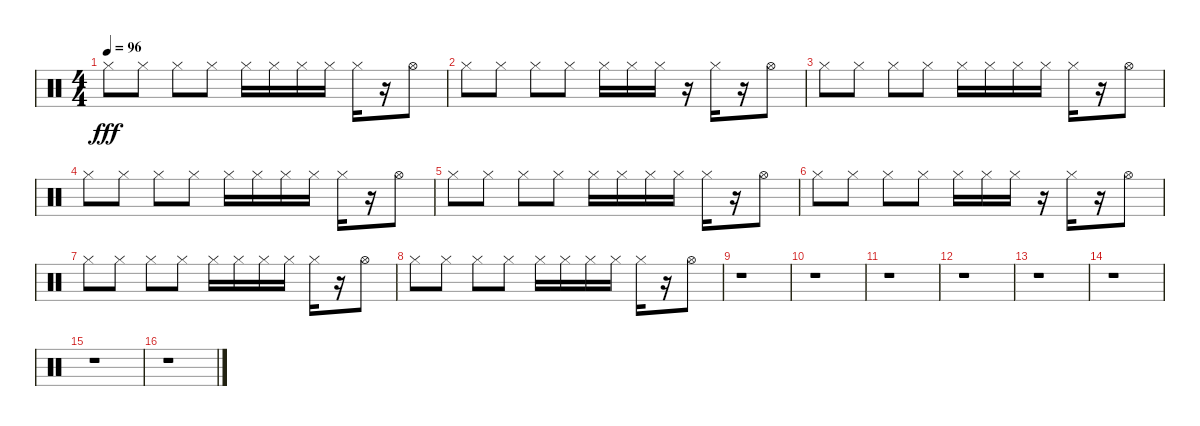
\track "" {instrument percussion}
\staff {score}
\articulation defaults
\ts (4 4)
\tempo 96
\clef neutral
\ks c "Hi-Hat (closed)".8{dy fff} "Hi-Hat (closed)".8 "Hi-Hat (closed)".8 "Hi-Hat (closed)".8 "Hi-Hat (closed)".16 "Hi-Hat (closed)".16 "Hi-Hat (closed)".16 "Hi-Hat (closed)".16 "Hi-Hat (closed)".16
r.16 "Hi-Hat (open)".8 |
"Hi-Hat (closed)".8 "Hi-Hat (closed)".8 "Hi-Hat (closed)".8 "Hi-Hat (closed)".8 "Hi-Hat (closed)".16 "Hi-Hat (closed)".16 "Hi-Hat (closed)".16 r.16 "Hi-Hat (closed)".16 r.16 "Hi-Hat (open)".8 |
"Hi-Hat (closed)".8 "Hi-Hat (closed)".8 "Hi-Hat (closed)".8 "Hi-Hat (closed)".8 "Hi-Hat (closed)".16 "Hi-Hat (closed)".16 "Hi-Hat (closed)".16 "Hi-Hat (closed)".16 "Hi-Hat (closed)".16 r.16 "Hi-Hat (open)".8 |
"Hi-Hat (closed)".8 "Hi-Hat (closed)".8 "Hi-Hat (closed)".8 "Hi-Hat (closed)".8 "Hi-Hat (closed)".16 "Hi-Hat (closed)".16 "Hi-Hat (closed)".16 "Hi-Hat (closed)".16 "Hi-Hat (closed)".16 r.16 "Hi-Hat (open)".8 |
"Hi-Hat (closed)".8 "Hi-Hat (closed)".8 "Hi-Hat (closed)".8 "Hi-Hat (closed)".8 "Hi-Hat (closed)".16 "Hi-Hat (closed)".16 "Hi-Hat (closed)".16 "Hi-Hat (closed)".16 "Hi-Hat (closed)".16 r.16 "Hi-Hat (open)".8 |
"Hi-Hat (closed)".8 "Hi-Hat (closed)".8 "Hi-Hat (closed)".8 "Hi-Hat (closed)".8 "Hi-Hat (closed)".16 "Hi-Hat (closed)".16 "Hi-Hat (closed)".16 r.16 "Hi-Hat (closed)".16 r.16 "Hi-Hat (open)".8 |
"Hi-Hat (closed)".8 "Hi-Hat (closed)".8 "Hi-Hat (closed)".8 "Hi-Hat (closed)".8 "Hi-Hat (closed)".16 "Hi-Hat (closed)".16 "Hi-Hat (closed)".16 "Hi-Hat (closed)".16 "Hi-Hat (closed)".16 r.16 "Hi-Hat (open)".8 |
"Hi-Hat (closed)".8 "Hi-Hat (closed)".8 "Hi-Hat (closed)".8 "Hi-Hat (closed)".8 "Hi-Hat (closed)".16 "Hi-Hat (closed)".16 "Hi-Hat (closed)".16 "Hi-Hat (closed)".16 "Hi-Hat (closed)".16 r.16 "Hi-Hat (open)".8 |
r.1 |
r.1 |
r.1 |
r.1 |
r.1 |
r.1 |
r.1 |
r.1
